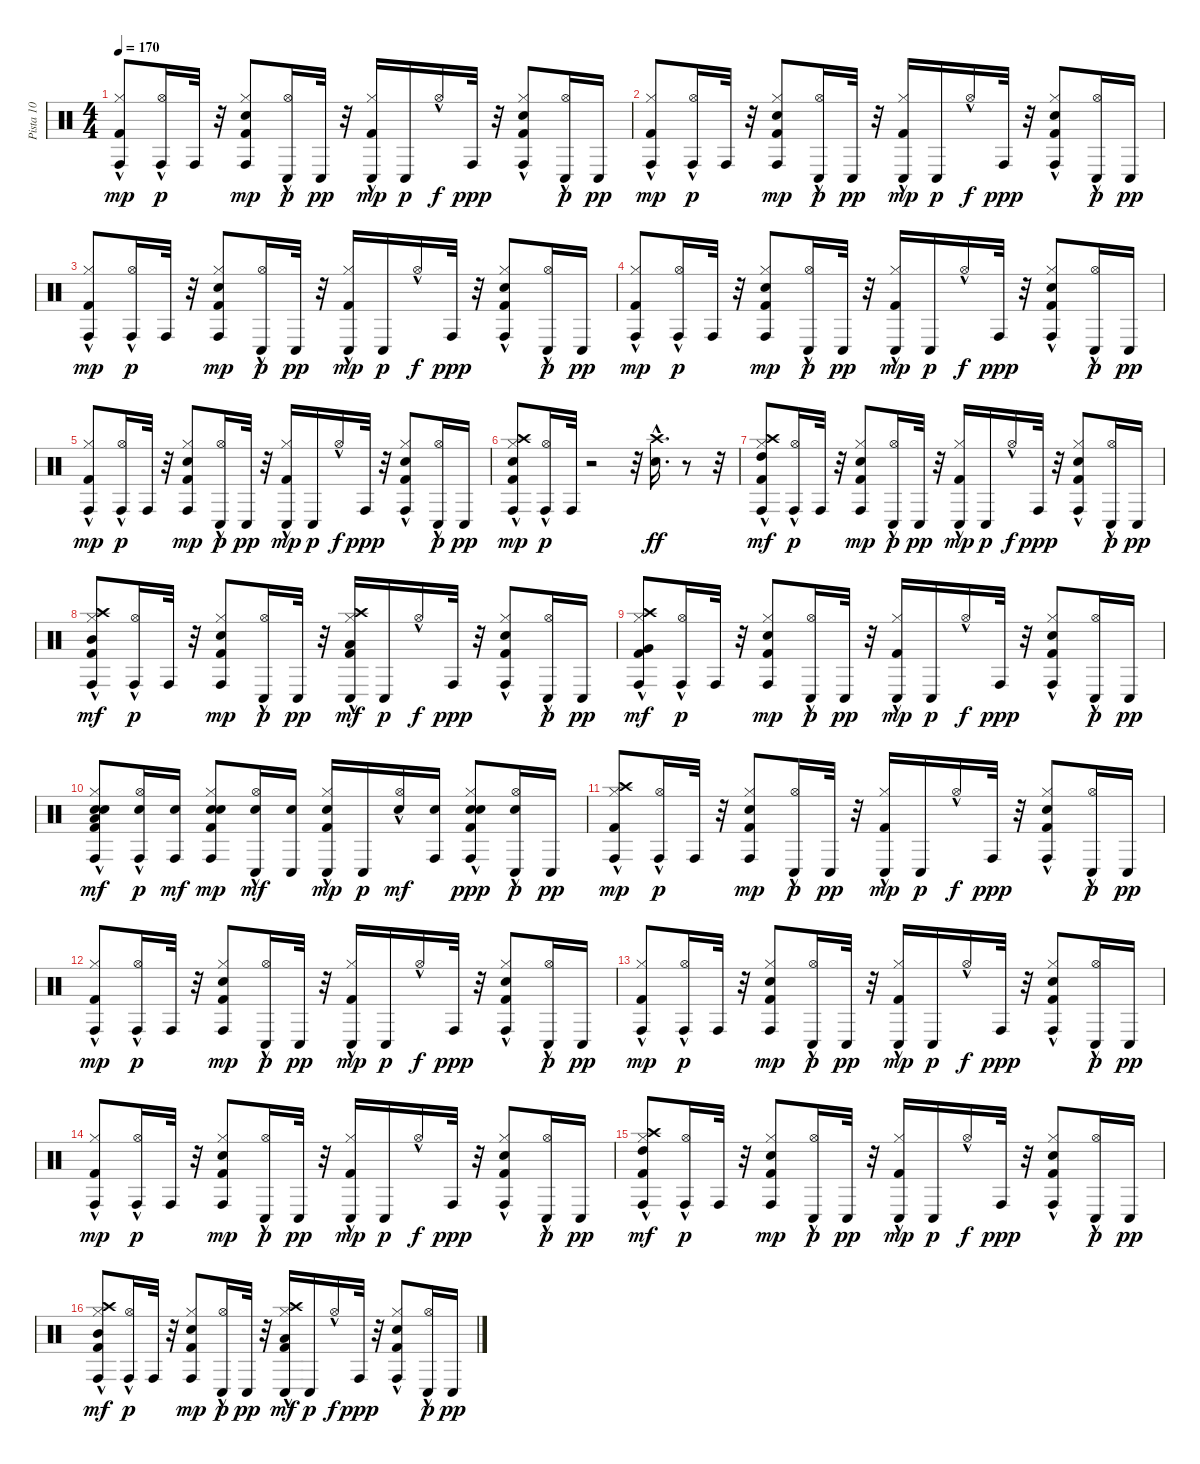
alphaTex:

\track ("Pista 10" "Pista 10") {instrument percussion}
\staff {score}
\articulation defaults
\ts (4 4)
\tempo 170
\clef neutral
\ks c
("Kick (hit) 2" "Hi-Hat (closed)"{hac} "Conga high (hit)").8{dy mp} ("Hi-Hat (open)"{hac} "Conga high (hit)").16{dy p} "Conga high (hit)".32 r.32 ("Kick (hit) 2" "Electric Snare (hit)" "Hi-Hat (closed)" "Conga high (hit)").8{dy mp} ("Hi-Hat (open)"{hac} "Conga low (hit)").16{dy p} "Conga low (hit)".32{dy pp} r.32 ("Kick (hit) 2" "Hi-Hat (closed)"{hac} "Conga low (hit)").16{dy mp} "Conga low (hit)".16{dy p} "Hi-Hat (open)"{hac}.16{dy f} "Conga high (hit)".32{dy ppp} r.32 ("Kick (hit) 2" "Electric Snare (hit)" "Hi-Hat (closed)"{hac} "Conga high (hit)").8 ("Hi-Hat (open)"{hac} "Conga low (hit)").16{dy p} "Conga low (hit)".16{dy pp} |
("Kick (hit) 2" "Hi-Hat (closed)"{hac} "Conga high (hit)").8{dy mp} ("Hi-Hat (open)"{hac} "Conga high (hit)").16{dy p} "Conga high (hit)".32 r.32 ("Kick (hit) 2" "Electric Snare (hit)" "Hi-Hat (closed)" "Conga high (hit)").8{dy mp} ("Hi-Hat (open)"{hac} "Conga low (hit)").16{dy p} "Conga low (hit)".32{dy pp} r.32 ("Kick (hit) 2" "Hi-Hat (closed)"{hac} "Conga low (hit)").16{dy mp} "Conga low (hit)".16{dy p} "Hi-Hat (open)"{hac}.16{dy f} "Conga high (hit)".32{dy ppp} r.32 ("Kick (hit) 2" "Electric Snare (hit)" "Hi-Hat (closed)"{hac} "Conga high (hit)").8 ("Hi-Hat (open)"{hac} "Conga low (hit)").16{dy p} "Conga low (hit)".16{dy pp} |
("Kick (hit) 2" "Hi-Hat (closed)"{hac} "Conga high (hit)").8{dy mp} ("Hi-Hat (open)"{hac} "Conga high (hit)").16{dy p} "Conga high (hit)".32 r.32 ("Kick (hit) 2" "Electric Snare (hit)" "Hi-Hat (closed)" "Conga high (hit)").8{dy mp} ("Hi-Hat (open)"{hac} "Conga low (hit)").16{dy p} "Conga low (hit)".32{dy pp} r.32 ("Kick (hit) 2" "Hi-Hat (closed)"{hac} "Conga low (hit)").16{dy mp} "Conga low (hit)".16{dy p} "Hi-Hat (open)"{hac}.16{dy f} "Conga high (hit)".32{dy ppp} r.32 ("Kick (hit) 2" "Electric Snare (hit)" "Hi-Hat (closed)"{hac} "Conga high (hit)").8 ("Hi-Hat (open)"{hac} "Conga low (hit)").16{dy p} "Conga low (hit)".16{dy pp} |
("Kick (hit) 2" "Hi-Hat (closed)"{hac} "Conga high (hit)").8{dy mp} ("Hi-Hat (open)"{hac} "Conga high (hit)").16{dy p} "Conga high (hit)".32 r.32 ("Kick (hit) 2" "Electric Snare (hit)" "Hi-Hat (closed)" "Conga high (hit)").8{dy mp} ("Hi-Hat (open)"{hac} "Conga low (hit)").16{dy p} "Conga low (hit)".32{dy pp} r.32 ("Kick (hit) 2" "Hi-Hat (closed)"{hac} "Conga low (hit)").16{dy mp} "Conga low (hit)".16{dy p} "Hi-Hat (open)"{hac}.16{dy f} "Conga high (hit)".32{dy ppp} r.32 ("Kick (hit) 2" "Electric Snare (hit)" "Hi-Hat (closed)"{hac} "Conga high (hit)").8 ("Hi-Hat (open)"{hac} "Conga low (hit)").16{dy p} "Conga low (hit)".16{dy pp} |
("Kick (hit) 2" "Hi-Hat (closed)"{hac} "Conga high (hit)").8{dy mp} ("Hi-Hat (open)"{hac} "Conga high (hit)").16{dy p} "Conga high (hit)".32 r.32 ("Kick (hit) 2" "Electric Snare (hit)" "Hi-Hat (closed)" "Conga high (hit)").8{dy mp} ("Hi-Hat (open)"{hac} "Conga low (hit)").16{dy p} "Conga low (hit)".32{dy pp} r.32 ("Kick (hit) 2" "Hi-Hat (closed)"{hac} "Conga low (hit)").16{dy mp} "Conga low (hit)".16{dy p} "Hi-Hat (open)"{hac}.16{dy f} "Conga high (hit)".32{dy ppp} r.32 ("Kick (hit) 2" "Electric Snare (hit)" "Hi-Hat (closed)"{hac} "Conga high (hit)").8 ("Hi-Hat (open)"{hac} "Conga low (hit)").16{dy p} "Conga low (hit)".16{dy pp} |
("Kick (hit) 2" "Hi-Hat (closed)"{hac} "Conga high (hit)" "Snare (hit) 2" "Crash high (hit)").8{dy mp} ("Hi-Hat (open)"{hac} "Conga high (hit)").16{dy p} "Conga high (hit)".32 r.2 r.32 ("Crash high (hit)" "Snare (hit) 2"{hac}).16{d dy ff} r.8 r.32 |
("Kick (hit) 2" "Hi-Hat (closed)"{hac} "Conga high (hit)" "Crash high (hit)" "High Tom (hit)"{hac}).8{dy mf} ("Hi-Hat (open)"{hac} "Conga high (hit)").16{dy p} "Conga high (hit)".32 r.32 ("Kick (hit) 2" "Electric Snare (hit)" "Hi-Hat (closed)" "Conga high (hit)").8{dy mp} ("Hi-Hat (open)"{hac} "Conga low (hit)").16{dy p} "Conga low (hit)".32{dy pp} r.32 ("Kick (hit) 2" "Hi-Hat (closed)"{hac} "Conga low (hit)").16{dy mp} "Conga low (hit)".16{dy p} "Hi-Hat (open)"{hac}.16{dy f} "Conga high (hit)".32{dy ppp} r.32 ("Kick (hit) 2" "Electric Snare (hit)" "Hi-Hat (closed)"{hac} "Conga high (hit)").8 ("Hi-Hat (open)"{hac} "Conga low (hit)").16{dy p} "Conga low (hit)".16{dy pp} |
("Kick (hit) 2" "Hi-Hat (closed)"{hac} "Conga high (hit)" "Crash high (hit)" "Mid Tom (hit)").8{dy mf} ("Hi-Hat (open)"{hac} "Conga high (hit)").16{dy p} "Conga high (hit)".32 r.32 ("Kick (hit) 2" "Electric Snare (hit)" "Hi-Hat (closed)" "Conga high (hit)").8{dy mp} ("Hi-Hat (open)"{hac} "Conga low (hit)").16{dy p} "Conga low (hit)".32{dy pp} r.32 ("Kick (hit) 2" "Hi-Hat (closed)"{hac} "Conga low (hit)" "Low Tom (hit)" "Crash high (hit)").16{dy mf} "Conga low (hit)".16{dy p} "Hi-Hat (open)"{hac}.16{dy f} "Conga high (hit)".32{dy ppp} r.32 ("Kick (hit) 2" "Electric Snare (hit)" "Hi-Hat (closed)"{hac} "Conga high (hit)").8 ("Hi-Hat (open)"{hac} "Conga low (hit)").16{dy p} "Conga low (hit)".16{dy pp} |
("Kick (hit) 2" "Hi-Hat (closed)"{hac} "Conga high (hit)" "Very Low Tom (hit)" "Crash high (hit)").8{dy mf} ("Hi-Hat (open)"{hac} "Conga high (hit)").16{dy p} "Conga high (hit)".32 r.32 ("Kick (hit) 2" "Electric Snare (hit)" "Hi-Hat (closed)" "Conga high (hit)").8{dy mp} ("Hi-Hat (open)"{hac} "Conga low (hit)").16{dy p} "Conga low (hit)".32{dy pp} r.32 ("Kick (hit) 2" "Hi-Hat (closed)"{hac} "Conga low (hit)").16{dy mp} "Conga low (hit)".16{dy p} "Hi-Hat (open)"{hac}.16{dy f} "Conga high (hit)".32{dy ppp} r.32 ("Kick (hit) 2" "Electric Snare (hit)" "Hi-Hat (closed)"{hac} "Conga high (hit)").8 ("Hi-Hat (open)"{hac} "Conga low (hit)").16{dy p} "Conga low (hit)".16{dy pp} |
("Kick (hit) 2" "Hi-Hat (closed)"{hac} "Conga high (hit)" "Electric Snare (hit)" "Low Floor Tom (hit)" "Electric Snare (hit)").8{dy mf} ("Hi-Hat (open)"{hac} "Snare (hit) 2" "Conga high (hit)").16{dy p} ("Conga high (hit)" "Snare (hit) 2").16{dy mf} ("Kick (hit) 2" "Electric Snare (hit)" "Hi-Hat (closed)" "Conga high (hit)" "Electric Snare (hit)").8{dy mp} ("Hi-Hat (open)"{hac} "Conga low (hit)" "Snare (hit) 2").16{dy mf} ("Conga low (hit)" "Snare (hit) 2").16 ("Kick (hit) 2" "Hi-Hat (closed)"{hac} "Conga low (hit)" "Electric Snare (hit)").16{dy mp} "Conga low (hit)".16{dy p} ("Hi-Hat (open)"{hac} "Snare (hit) 2").16{dy mf} ("Conga high (hit)" "Snare (hit) 2").16 ("Kick (hit) 2" "Electric Snare (hit)" "Hi-Hat (closed)"{hac} "Conga high (hit)" "Electric Snare (hit)").8{dy ppp} ("Hi-Hat (open)"{hac} "Snare (hit) 2" "Conga low (hit)").16{dy p} "Conga low (hit)".16{dy pp} |
("Kick (hit) 2" "Hi-Hat (closed)"{hac} "Conga high (hit)" "Crash high (hit)").8{dy mp} ("Hi-Hat (open)"{hac} "Conga high (hit)").16{dy p} "Conga high (hit)".32 r.32 ("Kick (hit) 2" "Electric Snare (hit)" "Hi-Hat (closed)" "Conga high (hit)").8{dy mp} ("Hi-Hat (open)"{hac} "Conga low (hit)").16{dy p} "Conga low (hit)".32{dy pp} r.32 ("Kick (hit) 2" "Hi-Hat (closed)"{hac} "Conga low (hit)").16{dy mp} "Conga low (hit)".16{dy p} "Hi-Hat (open)"{hac}.16{dy f} "Conga high (hit)".32{dy ppp} r.32 ("Kick (hit) 2" "Electric Snare (hit)" "Hi-Hat (closed)"{hac} "Conga high (hit)").8 ("Hi-Hat (open)"{hac} "Conga low (hit)").16{dy p} "Conga low (hit)".16{dy pp} |
("Kick (hit) 2" "Hi-Hat (closed)"{hac} "Conga high (hit)").8{dy mp} ("Hi-Hat (open)"{hac} "Conga high (hit)").16{dy p} "Conga high (hit)".32 r.32 ("Kick (hit) 2" "Electric Snare (hit)" "Hi-Hat (closed)" "Conga high (hit)").8{dy mp} ("Hi-Hat (open)"{hac} "Conga low (hit)").16{dy p} "Conga low (hit)".32{dy pp} r.32 ("Kick (hit) 2" "Hi-Hat (closed)"{hac} "Conga low (hit)").16{dy mp} "Conga low (hit)".16{dy p} "Hi-Hat (open)"{hac}.16{dy f} "Conga high (hit)".32{dy ppp} r.32 ("Kick (hit) 2" "Electric Snare (hit)" "Hi-Hat (closed)"{hac} "Conga high (hit)").8 ("Hi-Hat (open)"{hac} "Conga low (hit)").16{dy p} "Conga low (hit)".16{dy pp} |
("Kick (hit) 2" "Hi-Hat (closed)"{hac} "Conga high (hit)").8{dy mp} ("Hi-Hat (open)"{hac} "Conga high (hit)").16{dy p} "Conga high (hit)".32 r.32 ("Kick (hit) 2" "Electric Snare (hit)" "Hi-Hat (closed)" "Conga high (hit)").8{dy mp} ("Hi-Hat (open)"{hac} "Conga low (hit)").16{dy p} "Conga low (hit)".32{dy pp} r.32 ("Kick (hit) 2" "Hi-Hat (closed)"{hac} "Conga low (hit)").16{dy mp} "Conga low (hit)".16{dy p} "Hi-Hat (open)"{hac}.16{dy f} "Conga high (hit)".32{dy ppp} r.32 ("Kick (hit) 2" "Electric Snare (hit)" "Hi-Hat (closed)"{hac} "Conga high (hit)").8 ("Hi-Hat (open)"{hac} "Conga low (hit)").16{dy p} "Conga low (hit)".16{dy pp} |
("Kick (hit) 2" "Hi-Hat (closed)"{hac} "Conga high (hit)").8{dy mp} ("Hi-Hat (open)"{hac} "Conga high (hit)").16{dy p} "Conga high (hit)".32 r.32 ("Kick (hit) 2" "Electric Snare (hit)" "Hi-Hat (closed)" "Conga high (hit)").8{dy mp} ("Hi-Hat (open)"{hac} "Conga low (hit)").16{dy p} "Conga low (hit)".32{dy pp} r.32 ("Kick (hit) 2" "Hi-Hat (closed)"{hac} "Conga low (hit)").16{dy mp} "Conga low (hit)".16{dy p} "Hi-Hat (open)"{hac}.16{dy f} "Conga high (hit)".32{dy ppp} r.32 ("Kick (hit) 2" "Electric Snare (hit)" "Hi-Hat (closed)"{hac} "Conga high (hit)").8 ("Hi-Hat (open)"{hac} "Conga low (hit)").16{dy p} "Conga low (hit)".16{dy pp} |
("Kick (hit) 2" "Hi-Hat (closed)"{hac} "Conga high (hit)" "High Tom (hit)"{hac} "Crash high (hit)").8{dy mf} ("Hi-Hat (open)"{hac} "Conga high (hit)").16{dy p} "Conga high (hit)".32 r.32 ("Kick (hit) 2" "Electric Snare (hit)" "Hi-Hat (closed)" "Conga high (hit)").8{dy mp} ("Hi-Hat (open)"{hac} "Conga low (hit)").16{dy p} "Conga low (hit)".32{dy pp} r.32 ("Kick (hit) 2" "Hi-Hat (closed)"{hac} "Conga low (hit)").16{dy mp} "Conga low (hit)".16{dy p} "Hi-Hat (open)"{hac}.16{dy f} "Conga high (hit)".32{dy ppp} r.32 ("Kick (hit) 2" "Electric Snare (hit)" "Hi-Hat (closed)"{hac} "Conga high (hit)").8 ("Hi-Hat (open)"{hac} "Conga low (hit)").16{dy p} "Conga low (hit)".16{dy pp} |
("Kick (hit) 2" "Hi-Hat (closed)"{hac} "Conga high (hit)" "Crash high (hit)" "Mid Tom (hit)").8{dy mf} ("Hi-Hat (open)"{hac} "Conga high (hit)").16{dy p} "Conga high (hit)".32 r.32 ("Kick (hit) 2" "Electric Snare (hit)" "Hi-Hat (closed)" "Conga high (hit)").8{dy mp} ("Hi-Hat (open)"{hac} "Conga low (hit)").16{dy p} "Conga low (hit)".32{dy pp} r.32 ("Kick (hit) 2" "Hi-Hat (closed)"{hac} "Conga low (hit)" "Crash high (hit)" "Low Tom (hit)").16{dy mf} "Conga low (hit)".16{dy p} "Hi-Hat (open)"{hac}.16{dy f} "Conga high (hit)".32{dy ppp} r.32 ("Kick (hit) 2" "Electric Snare (hit)" "Hi-Hat (closed)"{hac} "Conga high (hit)").8 ("Hi-Hat (open)"{hac} "Conga low (hit)").16{dy p} "Conga low (hit)".16{dy pp}
